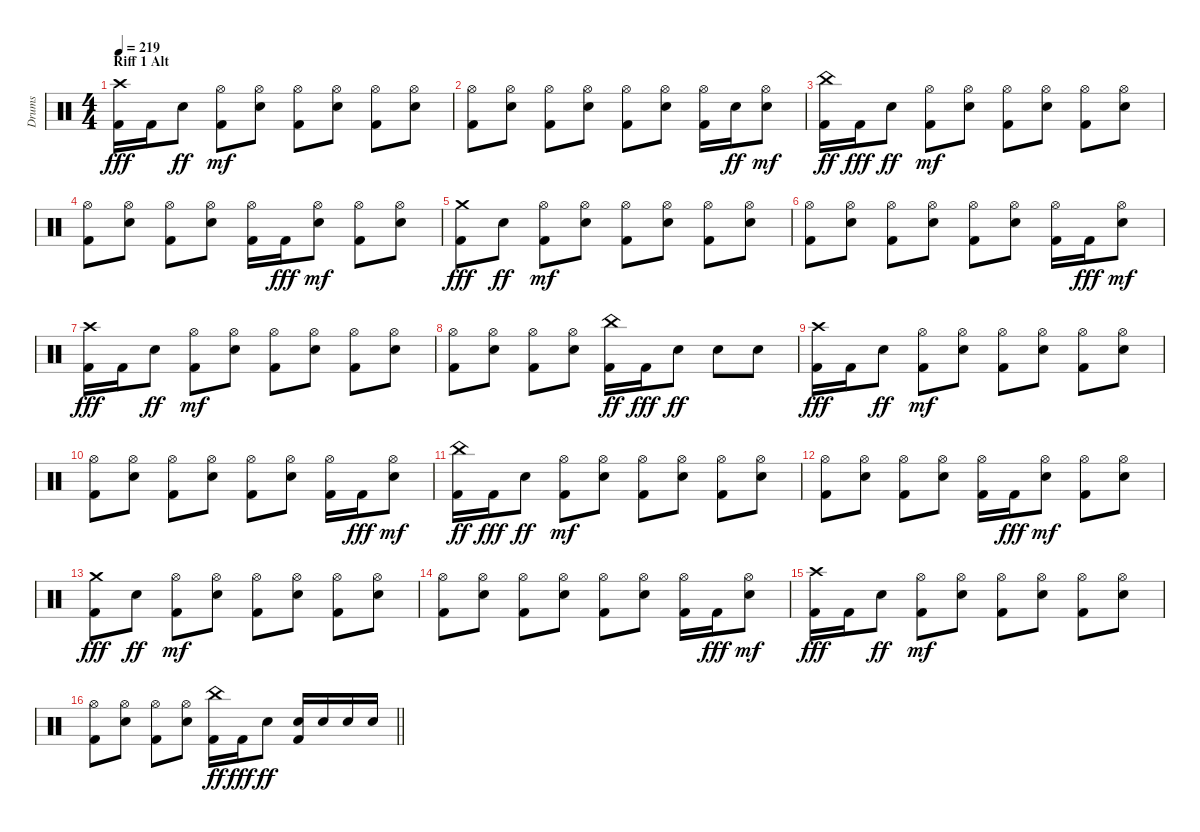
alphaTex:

\track ("Drums" "Drums") {instrument percussion}
\staff {score}
\articulation defaults
\ts (4 4)
\section ("" "Riff 1 Alt")
\tempo 219
\clef neutral
\ks c
("Kick (hit) 2" "Crash high (hit)").16{dy fff} "Kick (hit) 2".16 "Snare (hit) 2".8{dy ff} ("Kick (hit) 2" "Hi-Hat (open)").8{dy mf} ("Snare (hit) 2" "Hi-Hat (open)").8 ("Kick (hit) 2" "Hi-Hat (open)").8 ("Snare (hit) 2" "Hi-Hat (open)").8 ("Kick (hit) 2" "Hi-Hat (open)").8 ("Snare (hit) 2" "Hi-Hat (open)").8 |
("Kick (hit) 2" "Hi-Hat (open)").8 ("Snare (hit) 2" "Hi-Hat (open)").8 ("Kick (hit) 2" "Hi-Hat (open)").8 ("Snare (hit) 2" "Hi-Hat (open)").8 ("Kick (hit) 2" "Hi-Hat (open)").8 ("Snare (hit) 2" "Hi-Hat (open)").8 ("Kick (hit) 2" "Hi-Hat (open)").16 "Snare (hit) 2".16{dy ff} ("Snare (hit) 2" "Hi-Hat (open)").8{dy mf} |
("Kick (hit) 2" "China (hit)").16{dy ff} "Kick (hit) 2".16{dy fff} "Snare (hit) 2".8{dy ff} ("Kick (hit) 2" "Hi-Hat (open)").8{dy mf} ("Snare (hit) 2" "Hi-Hat (open)").8 ("Kick (hit) 2" "Hi-Hat (open)").8 ("Snare (hit) 2" "Hi-Hat (open)").8 ("Kick (hit) 2" "Hi-Hat (open)").8 ("Snare (hit) 2" "Hi-Hat (open)").8 |
("Kick (hit) 2" "Hi-Hat (open)").8 ("Snare (hit) 2" "Hi-Hat (open)").8 ("Kick (hit) 2" "Hi-Hat (open)").8 ("Snare (hit) 2" "Hi-Hat (open)").8 ("Kick (hit) 2" "Hi-Hat (open)").16 "Kick (hit) 2".16{dy fff} ("Snare (hit) 2" "Hi-Hat (open)").8{dy mf} ("Kick (hit) 2" "Hi-Hat (open)").8 ("Snare (hit) 2" "Hi-Hat (open)").8 |
("Kick (hit) 2" "Crash medium (hit)").8{dy fff} "Snare (hit) 2".8{dy ff} ("Kick (hit) 2" "Hi-Hat (open)").8{dy mf} ("Snare (hit) 2" "Hi-Hat (open)").8 ("Kick (hit) 2" "Hi-Hat (open)").8 ("Snare (hit) 2" "Hi-Hat (open)").8 ("Kick (hit) 2" "Hi-Hat (open)").8 ("Snare (hit) 2" "Hi-Hat (open)").8 |
("Kick (hit) 2" "Hi-Hat (open)").8 ("Snare (hit) 2" "Hi-Hat (open)").8 ("Kick (hit) 2" "Hi-Hat (open)").8 ("Snare (hit) 2" "Hi-Hat (open)").8 ("Kick (hit) 2" "Hi-Hat (open)").8 ("Snare (hit) 2" "Hi-Hat (open)").8 ("Kick (hit) 2" "Hi-Hat (open)").16 "Kick (hit) 2".16{dy fff} ("Snare (hit) 2" "Hi-Hat (open)").8{dy mf} |
("Kick (hit) 2" "Crash high (hit)").16{dy fff} "Kick (hit) 2".16 "Snare (hit) 2".8{dy ff} ("Kick (hit) 2" "Hi-Hat (open)").8{dy mf} ("Snare (hit) 2" "Hi-Hat (open)").8 ("Kick (hit) 2" "Hi-Hat (open)").8 ("Snare (hit) 2" "Hi-Hat (open)").8 ("Kick (hit) 2" "Hi-Hat (open)").8 ("Snare (hit) 2" "Hi-Hat (open)").8 |
("Kick (hit) 2" "Hi-Hat (open)").8 ("Snare (hit) 2" "Hi-Hat (open)").8 ("Kick (hit) 2" "Hi-Hat (open)").8 ("Snare (hit) 2" "Hi-Hat (open)").8 ("Kick (hit) 2" "China (hit)").16{dy ff} "Kick (hit) 2".16{dy fff} "Snare (hit) 2".8{dy ff} "Snare (hit) 2".8 "Snare (hit) 2".8 |
("Kick (hit) 2" "Crash high (hit)").16{dy fff} "Kick (hit) 2".16 "Snare (hit) 2".8{dy ff} ("Kick (hit) 2" "Hi-Hat (open)").8{dy mf} ("Snare (hit) 2" "Hi-Hat (open)").8 ("Kick (hit) 2" "Hi-Hat (open)").8 ("Snare (hit) 2" "Hi-Hat (open)").8 ("Kick (hit) 2" "Hi-Hat (open)").8 ("Snare (hit) 2" "Hi-Hat (open)").8 |
("Kick (hit) 2" "Hi-Hat (open)").8 ("Snare (hit) 2" "Hi-Hat (open)").8 ("Kick (hit) 2" "Hi-Hat (open)").8 ("Snare (hit) 2" "Hi-Hat (open)").8 ("Kick (hit) 2" "Hi-Hat (open)").8 ("Snare (hit) 2" "Hi-Hat (open)").8 ("Kick (hit) 2" "Hi-Hat (open)").16 "Kick (hit) 2".16{dy fff} ("Snare (hit) 2" "Hi-Hat (open)").8{dy mf} |
("Kick (hit) 2" "China (hit)").16{dy ff} "Kick (hit) 2".16{dy fff} "Snare (hit) 2".8{dy ff} ("Kick (hit) 2" "Hi-Hat (open)").8{dy mf} ("Snare (hit) 2" "Hi-Hat (open)").8 ("Kick (hit) 2" "Hi-Hat (open)").8 ("Snare (hit) 2" "Hi-Hat (open)").8 ("Kick (hit) 2" "Hi-Hat (open)").8 ("Snare (hit) 2" "Hi-Hat (open)").8 |
("Kick (hit) 2" "Hi-Hat (open)").8 ("Snare (hit) 2" "Hi-Hat (open)").8 ("Kick (hit) 2" "Hi-Hat (open)").8 ("Snare (hit) 2" "Hi-Hat (open)").8 ("Kick (hit) 2" "Hi-Hat (open)").16 "Kick (hit) 2".16{dy fff} ("Snare (hit) 2" "Hi-Hat (open)").8{dy mf} ("Kick (hit) 2" "Hi-Hat (open)").8 ("Snare (hit) 2" "Hi-Hat (open)").8 |
("Kick (hit) 2" "Crash medium (hit)").8{dy fff} "Snare (hit) 2".8{dy ff} ("Kick (hit) 2" "Hi-Hat (open)").8{dy mf} ("Snare (hit) 2" "Hi-Hat (open)").8 ("Kick (hit) 2" "Hi-Hat (open)").8 ("Snare (hit) 2" "Hi-Hat (open)").8 ("Kick (hit) 2" "Hi-Hat (open)").8 ("Snare (hit) 2" "Hi-Hat (open)").8 |
("Kick (hit) 2" "Hi-Hat (open)").8 ("Snare (hit) 2" "Hi-Hat (open)").8 ("Kick (hit) 2" "Hi-Hat (open)").8 ("Snare (hit) 2" "Hi-Hat (open)").8 ("Kick (hit) 2" "Hi-Hat (open)").8 ("Snare (hit) 2" "Hi-Hat (open)").8 ("Kick (hit) 2" "Hi-Hat (open)").16 "Kick (hit) 2".16{dy fff} ("Snare (hit) 2" "Hi-Hat (open)").8{dy mf} |
("Kick (hit) 2" "Crash high (hit)").16{dy fff} "Kick (hit) 2".16 "Snare (hit) 2".8{dy ff} ("Kick (hit) 2" "Hi-Hat (open)").8{dy mf} ("Snare (hit) 2" "Hi-Hat (open)").8 ("Kick (hit) 2" "Hi-Hat (open)").8 ("Snare (hit) 2" "Hi-Hat (open)").8 ("Kick (hit) 2" "Hi-Hat (open)").8 ("Snare (hit) 2" "Hi-Hat (open)").8 |
\barLineRight lightlight
("Kick (hit) 2" "Hi-Hat (open)").8 ("Snare (hit) 2" "Hi-Hat (open)").8 ("Kick (hit) 2" "Hi-Hat (open)").8 ("Snare (hit) 2" "Hi-Hat (open)").8 ("Kick (hit) 2" "China (hit)").16{dy ff} "Kick (hit) 2".16{dy fff} "Snare (hit) 2".8{dy ff} ("Kick (hit) 2" "Snare (hit) 2").16 "Snare (hit) 2".16 "Snare (hit) 2".16 "Snare (hit) 2".16
